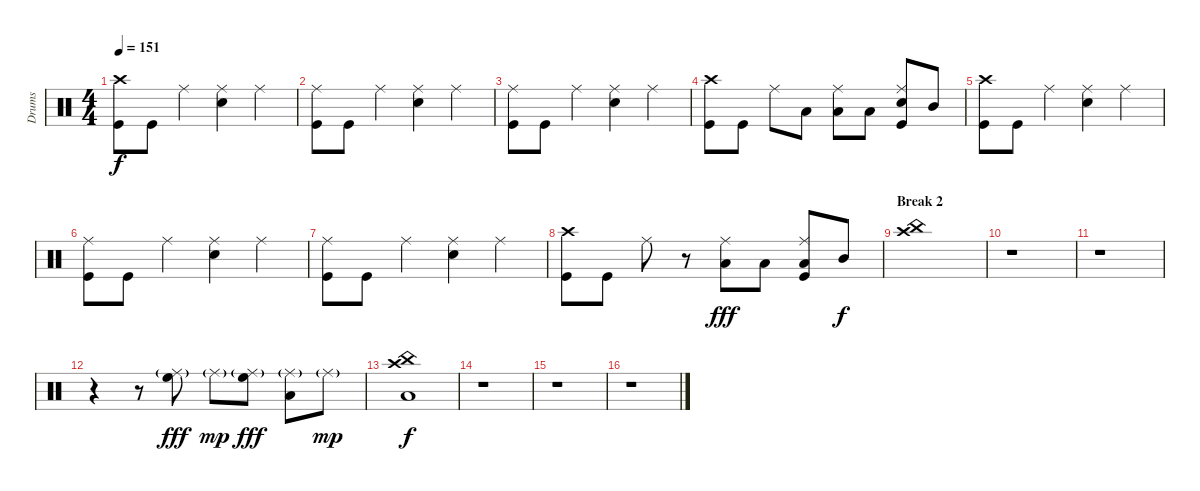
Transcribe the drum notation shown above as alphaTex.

\track ("Drums" "Drums") {instrument percussion}
\staff {score}
\articulation defaults
\ts (4 4)
\tempo 151
\clef neutral
\ks c
("Crash high (hit)" "Kick (hit)").8{dy f} "Kick (hit)".8 "Ride (middle)".4 ("Ride (middle)" "Electric Snare (hit)").4 "Ride (middle)".4 |
("Ride (middle)" "Kick (hit)").8 "Kick (hit)".8 "Ride (middle)".4 ("Ride (middle)" "Electric Snare (hit)").4 "Ride (middle)".4 |
("Ride (middle)" "Kick (hit)").8 "Kick (hit)".8 "Ride (middle)".4 ("Ride (middle)" "Electric Snare (hit)").4 "Ride (middle)".4 |
("Crash high (hit)" "Kick (hit)").8 "Kick (hit)".8 "Ride (middle)".8 "Low Floor Tom (hit)".8 ("Ride (middle)" "Low Floor Tom (hit)").8 "Low Floor Tom (hit)".8 ("Ride (middle)" "Electric Snare (hit)" "Kick (hit)").8 "Mid Tom (hit)".8 |
("Crash high (hit)" "Kick (hit)").8 "Kick (hit)".8 "Ride (middle)".4 ("Ride (middle)" "Electric Snare (hit)").4 "Ride (middle)".4 |
("Ride (middle)" "Kick (hit)").8 "Kick (hit)".8 "Ride (middle)".4 ("Ride (middle)" "Electric Snare (hit)").4 "Ride (middle)".4 |
("Ride (middle)" "Kick (hit)").8 "Kick (hit)".8 "Ride (middle)".4 ("Ride (middle)" "Electric Snare (hit)").4 "Ride (middle)".4 |
("Crash high (hit)" "Kick (hit)").8 "Kick (hit)".8 "Ride (middle)".8 r.8 ("Ride (middle)" "Low Floor Tom (hit)").8{dy fff} "Low Floor Tom (hit)".8 ("Ride (middle)" "Low Floor Tom (hit)" "Kick (hit)").8 "Mid Tom (hit)".8{dy f} |
\section ("" "Break 2")
("Crash high (hit)" "China (hit)").1 |
r.1 |
r.1 |
r.4 r.8 ("Ride (middle)"{g} "High Floor Tom (hit)").8{dy fff} "Ride (middle)"{g}.8{dy mp} ("Ride (middle)"{g} "High Floor Tom (hit)").8{dy fff} ("Ride (middle)"{g} "Low Tom (hit)").8 "Ride (middle)"{g}.8{dy mp} |
("Crash high (hit)" "China (hit)" "Low Tom (hit)").1{dy f} |
r.1 |
r.1 |
r.1
